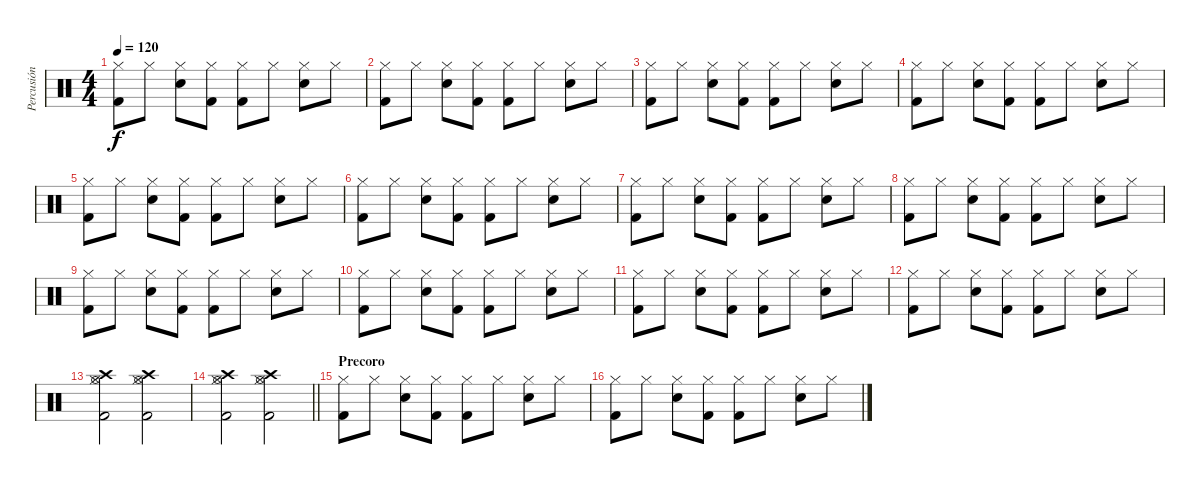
\track ("Percusión" "Percusión") {instrument percussion}
\staff {score}
\articulation defaults
\ts (4 4)
\tempo 120
\clef neutral
\ks c
("Hi-Hat (closed)" "Kick (hit) 2").8{dy f} "Hi-Hat (closed)".8 ("Hi-Hat (closed)" "Snare (hit) 2").8 ("Hi-Hat (closed)" "Kick (hit) 2").8 ("Hi-Hat (closed)" "Kick (hit) 2").8 "Hi-Hat (closed)".8 ("Hi-Hat (closed)" "Snare (hit) 2").8 "Hi-Hat (closed)".8 |
("Hi-Hat (closed)" "Kick (hit) 2").8 "Hi-Hat (closed)".8 ("Hi-Hat (closed)" "Snare (hit) 2").8 ("Hi-Hat (closed)" "Kick (hit) 2").8 ("Hi-Hat (closed)" "Kick (hit) 2").8 "Hi-Hat (closed)".8 ("Hi-Hat (closed)" "Snare (hit) 2").8 "Hi-Hat (closed)".8 |
("Hi-Hat (closed)" "Kick (hit) 2").8 "Hi-Hat (closed)".8 ("Hi-Hat (closed)" "Snare (hit) 2").8 ("Hi-Hat (closed)" "Kick (hit) 2").8 ("Hi-Hat (closed)" "Kick (hit) 2").8 "Hi-Hat (closed)".8 ("Hi-Hat (closed)" "Snare (hit) 2").8 "Hi-Hat (closed)".8 |
("Hi-Hat (closed)" "Kick (hit) 2").8 "Hi-Hat (closed)".8 ("Hi-Hat (closed)" "Snare (hit) 2").8 ("Hi-Hat (closed)" "Kick (hit) 2").8 ("Hi-Hat (closed)" "Kick (hit) 2").8 "Hi-Hat (closed)".8 ("Hi-Hat (closed)" "Snare (hit) 2").8 "Hi-Hat (closed)".8 |
("Hi-Hat (closed)" "Kick (hit) 2").8 "Hi-Hat (closed)".8 ("Hi-Hat (closed)" "Snare (hit) 2").8 ("Hi-Hat (closed)" "Kick (hit) 2").8 ("Hi-Hat (closed)" "Kick (hit) 2").8 "Hi-Hat (closed)".8 ("Hi-Hat (closed)" "Snare (hit) 2").8 "Hi-Hat (closed)".8 |
("Hi-Hat (closed)" "Kick (hit) 2").8 "Hi-Hat (closed)".8 ("Hi-Hat (closed)" "Snare (hit) 2").8 ("Hi-Hat (closed)" "Kick (hit) 2").8 ("Hi-Hat (closed)" "Kick (hit) 2").8 "Hi-Hat (closed)".8 ("Hi-Hat (closed)" "Snare (hit) 2").8 "Hi-Hat (closed)".8 |
("Hi-Hat (closed)" "Kick (hit) 2").8 "Hi-Hat (closed)".8 ("Hi-Hat (closed)" "Snare (hit) 2").8 ("Hi-Hat (closed)" "Kick (hit) 2").8 ("Hi-Hat (closed)" "Kick (hit) 2").8 "Hi-Hat (closed)".8 ("Hi-Hat (closed)" "Snare (hit) 2").8 "Hi-Hat (closed)".8 |
("Hi-Hat (closed)" "Kick (hit) 2").8 "Hi-Hat (closed)".8 ("Hi-Hat (closed)" "Snare (hit) 2").8 ("Hi-Hat (closed)" "Kick (hit) 2").8 ("Hi-Hat (closed)" "Kick (hit) 2").8 "Hi-Hat (closed)".8 ("Hi-Hat (closed)" "Snare (hit) 2").8 "Hi-Hat (closed)".8 |
("Hi-Hat (closed)" "Kick (hit) 2").8 "Hi-Hat (closed)".8 ("Hi-Hat (closed)" "Snare (hit) 2").8 ("Hi-Hat (closed)" "Kick (hit) 2").8 ("Hi-Hat (closed)" "Kick (hit) 2").8 "Hi-Hat (closed)".8 ("Hi-Hat (closed)" "Snare (hit) 2").8 "Hi-Hat (closed)".8 |
("Hi-Hat (closed)" "Kick (hit) 2").8 "Hi-Hat (closed)".8 ("Hi-Hat (closed)" "Snare (hit) 2").8 ("Hi-Hat (closed)" "Kick (hit) 2").8 ("Hi-Hat (closed)" "Kick (hit) 2").8 "Hi-Hat (closed)".8 ("Hi-Hat (closed)" "Snare (hit) 2").8 "Hi-Hat (closed)".8 |
("Hi-Hat (closed)" "Kick (hit) 2").8 "Hi-Hat (closed)".8 ("Hi-Hat (closed)" "Snare (hit) 2").8 ("Hi-Hat (closed)" "Kick (hit) 2").8 ("Hi-Hat (closed)" "Kick (hit) 2").8 "Hi-Hat (closed)".8 ("Hi-Hat (closed)" "Snare (hit) 2").8 "Hi-Hat (closed)".8 |
("Hi-Hat (closed)" "Kick (hit) 2").8 "Hi-Hat (closed)".8 ("Hi-Hat (closed)" "Snare (hit) 2").8 ("Hi-Hat (closed)" "Kick (hit) 2").8 ("Hi-Hat (closed)" "Kick (hit) 2").8 "Hi-Hat (closed)".8 ("Hi-Hat (closed)" "Snare (hit) 2").8 "Hi-Hat (closed)".8 |
("Crash high (hit)" "Hi-Hat (closed)" "Kick (hit) 2" "Hi-Hat (open)").2 ("Crash high (hit)" "Hi-Hat (closed)" "Kick (hit) 2" "Hi-Hat (open)").2 |
\barLineRight lightlight
("Crash high (hit)" "Hi-Hat (closed)" "Kick (hit) 2" "Hi-Hat (open)").2 ("Crash high (hit)" "Hi-Hat (closed)" "Kick (hit) 2" "Hi-Hat (open)").2 |
\section ("" "Precoro")
("Hi-Hat (closed)" "Kick (hit) 2").8 "Hi-Hat (closed)".8 ("Hi-Hat (closed)" "Snare (hit) 2").8 ("Hi-Hat (closed)" "Kick (hit) 2").8 ("Hi-Hat (closed)" "Kick (hit) 2").8 "Hi-Hat (closed)".8 ("Hi-Hat (closed)" "Snare (hit) 2").8 "Hi-Hat (closed)".8 |
("Hi-Hat (closed)" "Kick (hit) 2").8 "Hi-Hat (closed)".8 ("Hi-Hat (closed)" "Snare (hit) 2").8 ("Hi-Hat (closed)" "Kick (hit) 2").8 ("Hi-Hat (closed)" "Kick (hit) 2").8 "Hi-Hat (closed)".8 ("Hi-Hat (closed)" "Snare (hit) 2").8 "Hi-Hat (closed)".8
